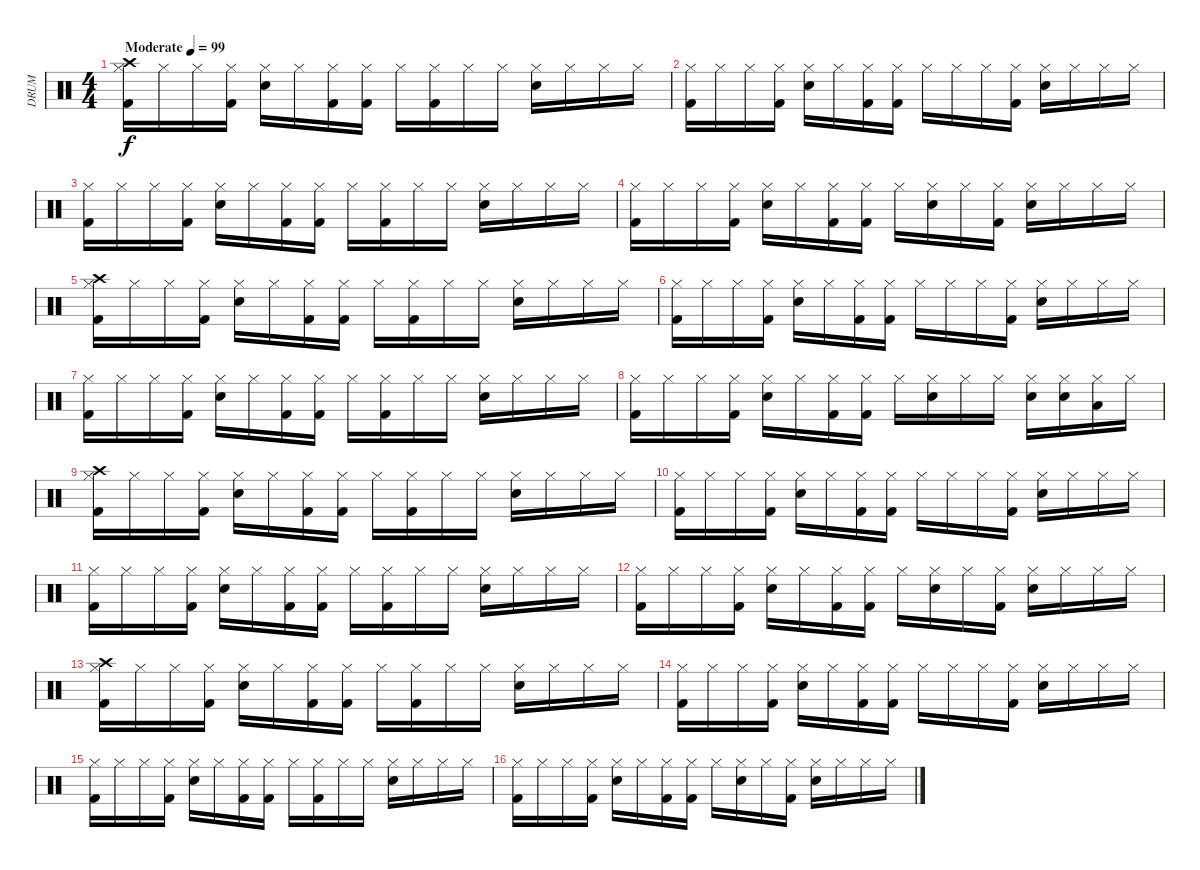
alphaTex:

\track ("DRUM" "DRUM") {instrument percussion}
\staff {score}
\articulation defaults
\ts (4 4)
\tempo (99 "Moderate")
\clef neutral
\ks c
("Crash high (hit)" "Hi-Hat (closed)" "Kick (hit) 2").16{dy f} "Hi-Hat (closed)".16 "Hi-Hat (closed)".16 ("Hi-Hat (closed)" "Kick (hit) 2").16 ("Hi-Hat (closed)" "Snare (hit) 2").16 "Hi-Hat (closed)".16 ("Hi-Hat (closed)" "Kick (hit) 2").16 ("Hi-Hat (closed)" "Kick (hit) 2").16 "Hi-Hat (closed)".16 ("Hi-Hat (closed)" "Kick (hit) 2").16 "Hi-Hat (closed)".16 "Hi-Hat (closed)".16 ("Hi-Hat (closed)" "Snare (hit) 2").16 "Hi-Hat (closed)".16 "Hi-Hat (closed)".16 "Hi-Hat (closed)".16 |
("Hi-Hat (closed)" "Kick (hit) 2").16 "Hi-Hat (closed)".16 "Hi-Hat (closed)".16 ("Hi-Hat (closed)" "Kick (hit) 2").16 ("Hi-Hat (closed)" "Snare (hit) 2").16 "Hi-Hat (closed)".16 ("Hi-Hat (closed)" "Kick (hit) 2").16 ("Hi-Hat (closed)" "Kick (hit) 2").16 "Hi-Hat (closed)".16 "Hi-Hat (closed)".16 "Hi-Hat (closed)".16 ("Hi-Hat (closed)" "Kick (hit) 2").16 ("Hi-Hat (closed)" "Snare (hit) 2").16 "Hi-Hat (closed)".16 "Hi-Hat (closed)".16 "Hi-Hat (closed)".16 |
("Hi-Hat (closed)" "Kick (hit) 2").16 "Hi-Hat (closed)".16 "Hi-Hat (closed)".16 ("Hi-Hat (closed)" "Kick (hit) 2").16 ("Hi-Hat (closed)" "Snare (hit) 2").16 "Hi-Hat (closed)".16 ("Hi-Hat (closed)" "Kick (hit) 2").16 ("Hi-Hat (closed)" "Kick (hit) 2").16 "Hi-Hat (closed)".16 ("Hi-Hat (closed)" "Kick (hit) 2").16 "Hi-Hat (closed)".16 "Hi-Hat (closed)".16 ("Hi-Hat (closed)" "Snare (hit) 2").16 "Hi-Hat (closed)".16 "Hi-Hat (closed)".16 "Hi-Hat (closed)".16 |
("Hi-Hat (closed)" "Kick (hit) 2").16 "Hi-Hat (closed)".16 "Hi-Hat (closed)".16 ("Hi-Hat (closed)" "Kick (hit) 2").16 ("Hi-Hat (closed)" "Snare (hit) 2").16 "Hi-Hat (closed)".16 ("Hi-Hat (closed)" "Kick (hit) 2").16 ("Hi-Hat (closed)" "Kick (hit) 2").16 "Hi-Hat (closed)".16 ("Hi-Hat (closed)" "Snare (hit) 2").16 "Hi-Hat (closed)".16 ("Hi-Hat (closed)" "Kick (hit) 2").16 ("Hi-Hat (closed)" "Snare (hit) 2").16 "Hi-Hat (closed)".16 "Hi-Hat (closed)".16 "Hi-Hat (closed)".16 |
("Crash high (hit)" "Hi-Hat (closed)" "Kick (hit) 2").16 "Hi-Hat (closed)".16 "Hi-Hat (closed)".16 ("Hi-Hat (closed)" "Kick (hit) 2").16 ("Hi-Hat (closed)" "Snare (hit) 2").16 "Hi-Hat (closed)".16 ("Hi-Hat (closed)" "Kick (hit) 2").16 ("Hi-Hat (closed)" "Kick (hit) 2").16 "Hi-Hat (closed)".16 ("Hi-Hat (closed)" "Kick (hit) 2").16 "Hi-Hat (closed)".16 "Hi-Hat (closed)".16 ("Hi-Hat (closed)" "Snare (hit) 2").16 "Hi-Hat (closed)".16 "Hi-Hat (closed)".16 "Hi-Hat (closed)".16 |
("Hi-Hat (closed)" "Kick (hit) 2").16 "Hi-Hat (closed)".16 "Hi-Hat (closed)".16 ("Hi-Hat (closed)" "Kick (hit) 2").16 ("Hi-Hat (closed)" "Snare (hit) 2").16 "Hi-Hat (closed)".16 ("Hi-Hat (closed)" "Kick (hit) 2").16 ("Hi-Hat (closed)" "Kick (hit) 2").16 "Hi-Hat (closed)".16 "Hi-Hat (closed)".16 "Hi-Hat (closed)".16 ("Hi-Hat (closed)" "Kick (hit) 2").16 ("Hi-Hat (closed)" "Snare (hit) 2").16 "Hi-Hat (closed)".16 "Hi-Hat (closed)".16 "Hi-Hat (closed)".16 |
("Hi-Hat (closed)" "Kick (hit) 2").16 "Hi-Hat (closed)".16 "Hi-Hat (closed)".16 ("Hi-Hat (closed)" "Kick (hit) 2").16 ("Hi-Hat (closed)" "Snare (hit) 2").16 "Hi-Hat (closed)".16 ("Hi-Hat (closed)" "Kick (hit) 2").16 ("Hi-Hat (closed)" "Kick (hit) 2").16 "Hi-Hat (closed)".16 ("Hi-Hat (closed)" "Kick (hit) 2").16 "Hi-Hat (closed)".16 "Hi-Hat (closed)".16 ("Hi-Hat (closed)" "Snare (hit) 2").16 "Hi-Hat (closed)".16 "Hi-Hat (closed)".16 "Hi-Hat (closed)".16 |
("Hi-Hat (closed)" "Kick (hit) 2").16 "Hi-Hat (closed)".16 "Hi-Hat (closed)".16 ("Hi-Hat (closed)" "Kick (hit) 2").16 ("Hi-Hat (closed)" "Snare (hit) 2").16 "Hi-Hat (closed)".16 ("Hi-Hat (closed)" "Kick (hit) 2").16 ("Hi-Hat (closed)" "Kick (hit) 2").16 "Hi-Hat (closed)".16 ("Hi-Hat (closed)" "Snare (hit) 2").16 "Hi-Hat (closed)".16 "Hi-Hat (closed)".16 ("Hi-Hat (closed)" "Snare (hit) 2").16 ("Hi-Hat (closed)" "Snare (hit) 2").16 ("Hi-Hat (closed)" "Low Tom (hit)").16 "Hi-Hat (closed)".16 |
("Crash high (hit)" "Hi-Hat (closed)" "Kick (hit) 2").16 "Hi-Hat (closed)".16 "Hi-Hat (closed)".16 ("Hi-Hat (closed)" "Kick (hit) 2").16 ("Hi-Hat (closed)" "Snare (hit) 2").16 "Hi-Hat (closed)".16 ("Hi-Hat (closed)" "Kick (hit) 2").16 ("Hi-Hat (closed)" "Kick (hit) 2").16 "Hi-Hat (closed)".16 ("Hi-Hat (closed)" "Kick (hit) 2").16 "Hi-Hat (closed)".16 "Hi-Hat (closed)".16 ("Hi-Hat (closed)" "Snare (hit) 2").16 "Hi-Hat (closed)".16 "Hi-Hat (closed)".16 "Hi-Hat (closed)".16 |
("Hi-Hat (closed)" "Kick (hit) 2").16 "Hi-Hat (closed)".16 "Hi-Hat (closed)".16 ("Hi-Hat (closed)" "Kick (hit) 2").16 ("Hi-Hat (closed)" "Snare (hit) 2").16 "Hi-Hat (closed)".16 ("Hi-Hat (closed)" "Kick (hit) 2").16 ("Hi-Hat (closed)" "Kick (hit) 2").16 "Hi-Hat (closed)".16 "Hi-Hat (closed)".16 "Hi-Hat (closed)".16 ("Hi-Hat (closed)" "Kick (hit) 2").16 ("Hi-Hat (closed)" "Snare (hit) 2").16 "Hi-Hat (closed)".16 "Hi-Hat (closed)".16 "Hi-Hat (closed)".16 |
("Hi-Hat (closed)" "Kick (hit) 2").16 "Hi-Hat (closed)".16 "Hi-Hat (closed)".16 ("Hi-Hat (closed)" "Kick (hit) 2").16 ("Hi-Hat (closed)" "Snare (hit) 2").16 "Hi-Hat (closed)".16 ("Hi-Hat (closed)" "Kick (hit) 2").16 ("Hi-Hat (closed)" "Kick (hit) 2").16 "Hi-Hat (closed)".16 ("Hi-Hat (closed)" "Kick (hit) 2").16 "Hi-Hat (closed)".16 "Hi-Hat (closed)".16 ("Hi-Hat (closed)" "Snare (hit) 2").16 "Hi-Hat (closed)".16 "Hi-Hat (closed)".16 "Hi-Hat (closed)".16 |
("Hi-Hat (closed)" "Kick (hit) 2").16 "Hi-Hat (closed)".16 "Hi-Hat (closed)".16 ("Hi-Hat (closed)" "Kick (hit) 2").16 ("Hi-Hat (closed)" "Snare (hit) 2").16 "Hi-Hat (closed)".16 ("Hi-Hat (closed)" "Kick (hit) 2").16 ("Hi-Hat (closed)" "Kick (hit) 2").16 "Hi-Hat (closed)".16 ("Hi-Hat (closed)" "Snare (hit) 2").16 "Hi-Hat (closed)".16 ("Hi-Hat (closed)" "Kick (hit) 2").16 ("Hi-Hat (closed)" "Snare (hit) 2").16 "Hi-Hat (closed)".16 "Hi-Hat (closed)".16 "Hi-Hat (closed)".16 |
("Crash high (hit)" "Hi-Hat (closed)" "Kick (hit) 2").16 "Hi-Hat (closed)".16 "Hi-Hat (closed)".16 ("Hi-Hat (closed)" "Kick (hit) 2").16 ("Hi-Hat (closed)" "Snare (hit) 2").16 "Hi-Hat (closed)".16 ("Hi-Hat (closed)" "Kick (hit) 2").16 ("Hi-Hat (closed)" "Kick (hit) 2").16 "Hi-Hat (closed)".16 ("Hi-Hat (closed)" "Kick (hit) 2").16 "Hi-Hat (closed)".16 "Hi-Hat (closed)".16 ("Hi-Hat (closed)" "Snare (hit) 2").16 "Hi-Hat (closed)".16 "Hi-Hat (closed)".16 "Hi-Hat (closed)".16 |
("Hi-Hat (closed)" "Kick (hit) 2").16 "Hi-Hat (closed)".16 "Hi-Hat (closed)".16 ("Hi-Hat (closed)" "Kick (hit) 2").16 ("Hi-Hat (closed)" "Snare (hit) 2").16 "Hi-Hat (closed)".16 ("Hi-Hat (closed)" "Kick (hit) 2").16 ("Hi-Hat (closed)" "Kick (hit) 2").16 "Hi-Hat (closed)".16 "Hi-Hat (closed)".16 "Hi-Hat (closed)".16 ("Hi-Hat (closed)" "Kick (hit) 2").16 ("Hi-Hat (closed)" "Snare (hit) 2").16 "Hi-Hat (closed)".16 "Hi-Hat (closed)".16 "Hi-Hat (closed)".16 |
("Hi-Hat (closed)" "Kick (hit) 2").16 "Hi-Hat (closed)".16 "Hi-Hat (closed)".16 ("Hi-Hat (closed)" "Kick (hit) 2").16 ("Hi-Hat (closed)" "Snare (hit) 2").16 "Hi-Hat (closed)".16 ("Hi-Hat (closed)" "Kick (hit) 2").16 ("Hi-Hat (closed)" "Kick (hit) 2").16 "Hi-Hat (closed)".16 ("Hi-Hat (closed)" "Kick (hit) 2").16 "Hi-Hat (closed)".16 "Hi-Hat (closed)".16 ("Hi-Hat (closed)" "Snare (hit) 2").16 "Hi-Hat (closed)".16 "Hi-Hat (closed)".16 "Hi-Hat (closed)".16 |
("Hi-Hat (closed)" "Kick (hit) 2").16 "Hi-Hat (closed)".16 "Hi-Hat (closed)".16 ("Hi-Hat (closed)" "Kick (hit) 2").16 ("Hi-Hat (closed)" "Snare (hit) 2").16 "Hi-Hat (closed)".16 ("Hi-Hat (closed)" "Kick (hit) 2").16 ("Hi-Hat (closed)" "Kick (hit) 2").16 "Hi-Hat (closed)".16 ("Hi-Hat (closed)" "Snare (hit) 2").16 "Hi-Hat (closed)".16 ("Hi-Hat (closed)" "Kick (hit) 2").16 ("Hi-Hat (closed)" "Snare (hit) 2").16 "Hi-Hat (closed)".16 "Hi-Hat (closed)".16 "Hi-Hat (closed)".16
